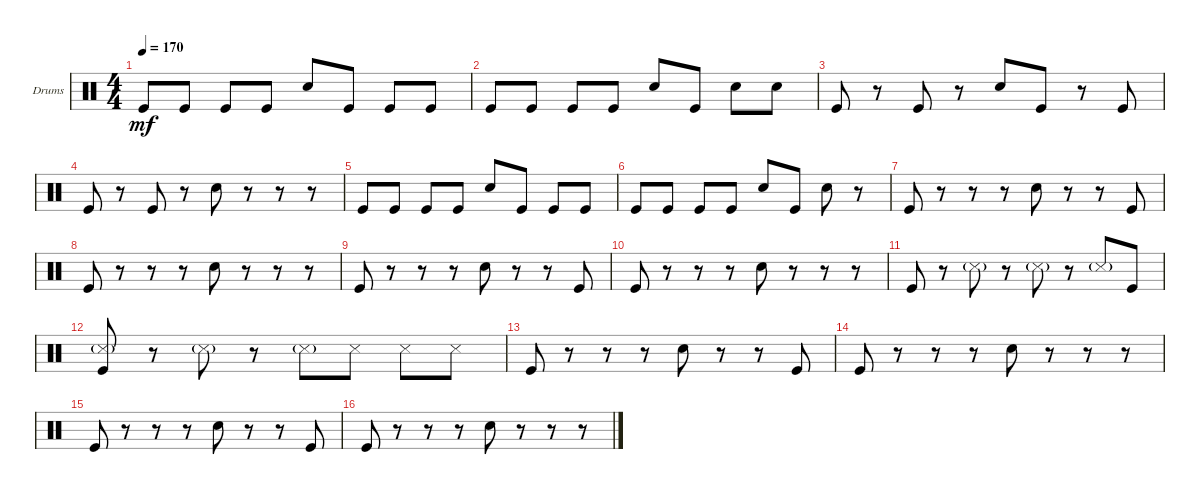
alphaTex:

\defaultSystemsLayout 4
\bracketExtendMode groupsimilarinstruments
\firstSystemTrackNameOrientation horizontal
\otherSystemsTrackNameOrientation horizontal
\track ("Drumkit" "Drums") {instrument percussion}
\staff {score}
\articulation defaults
\ts (4 4)
\tempo 170
\clef neutral
\ks c "Kick (hit)".8{dy mf} "Kick (hit)".8 "Kick (hit)".8 "Kick (hit)".8 "Snare (hit) 2".8 "Kick (hit)".8 "Kick (hit)".8 "Kick (hit)".8
|
"Kick (hit)".8 "Kick (hit)".8 "Kick (hit)".8 "Kick (hit)".8 "Snare (hit) 2".8 "Kick (hit)".8 "Snare (hit) 2".8 "Snare (hit) 2".8 |
"Kick (hit)".8 r.8 "Kick (hit)".8 r.8 "Snare (hit) 2".8 "Kick (hit)".8 r.8 "Kick (hit)".8 |
"Kick (hit)".8 r.8 "Kick (hit)".8 r.8 "Snare (hit) 2".8 r.8 r.8 r.8 |
"Kick (hit)".8 "Kick (hit)".8 "Kick (hit)".8 "Kick (hit)".8 "Snare (hit) 2".8 "Kick (hit)".8 "Kick (hit)".8 "Kick (hit)".8 |
"Kick (hit)".8 "Kick (hit)".8 "Kick (hit)".8 "Kick (hit)".8 "Snare (hit) 2".8 "Kick (hit)".8 "Snare (hit) 2".8 r.8 |
"Kick (hit)".8 r.8 r.8 r.8 "Snare (hit) 2".8 r.8 r.8 "Kick (hit)".8 |
"Kick (hit)".8 r.8 r.8 r.8 "Snare (hit) 2".8 r.8 r.8 r.8 |
"Kick (hit)".8 r.8 r.8 r.8 "Snare (hit) 2".8 r.8 r.8 "Kick (hit)".8 |
"Kick (hit)".8 r.8 r.8 r.8 "Snare (hit) 2".8 r.8 r.8 r.8 |
"Kick (hit)".8 r.8 "Snare (side stick) 3"{g}.8 r.8 "Snare (side stick) 3"{g}.8 r.8 "Snare (side stick) 3"{g}.8 "Kick (hit)".8 |
("Kick (hit)" "Snare (side stick) 3"{g}).8 r.8 "Snare (side stick) 3"{g}.8 r.8 "Snare (side stick) 3"{g}.8 "Snare (side stick) 3".8 "Snare (side stick) 3".8 "Snare (side stick) 3".8 |
"Kick (hit)".8 r.8 r.8 r.8 "Snare (hit) 2".8 r.8 r.8 "Kick (hit)".8 |
"Kick (hit)".8 r.8 r.8 r.8 "Snare (hit) 2".8 r.8 r.8 r.8 |
"Kick (hit)".8 r.8 r.8 r.8 "Snare (hit) 2".8 r.8 r.8 "Kick (hit)".8 |
"Kick (hit)".8 r.8 r.8 r.8 "Snare (hit) 2".8 r.8 r.8 r.8
